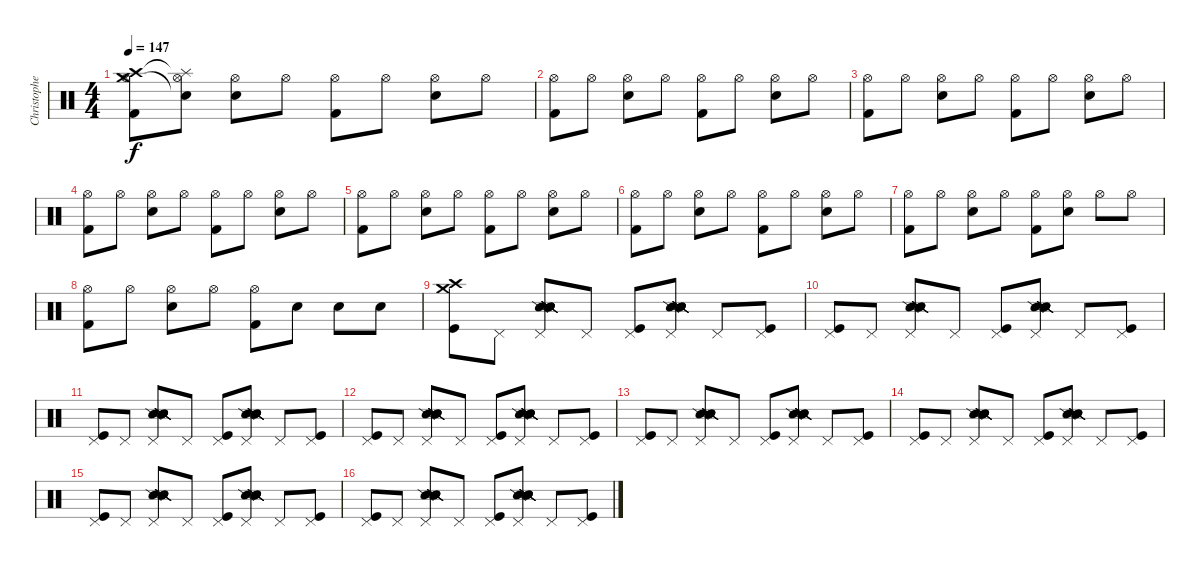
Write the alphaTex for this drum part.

\track ("Christopher Schneider  (Drums)" "Christophe") {instrument percussion}
\staff {score}
\articulation defaults
\ts (4 4)
\tempo 147
\clef neutral
\ks c
("Crash high (hit)" "Hi-Hat (open)" "Crash medium (hit)" "Kick (hit) 2").8{dy f} ("Splash (hit)"{t} "Hi-Hat (open)" "Snare (hit)"{t}).8 ("Hi-Hat (open)" "Electric Snare (hit)").8 "Hi-Hat (open)".8 ("Hi-Hat (open)" "Kick (hit) 2").8 "Hi-Hat (open)".8 ("Hi-Hat (open)" "Electric Snare (hit)").8 "Hi-Hat (open)".8 |
("Hi-Hat (open)" "Kick (hit) 2").8 "Hi-Hat (open)".8 ("Hi-Hat (open)" "Electric Snare (hit)").8 "Hi-Hat (open)".8 ("Hi-Hat (open)" "Kick (hit) 2").8 "Hi-Hat (open)".8 ("Hi-Hat (open)" "Electric Snare (hit)").8 "Hi-Hat (open)".8 |
("Hi-Hat (open)" "Kick (hit) 2").8 "Hi-Hat (open)".8 ("Hi-Hat (open)" "Electric Snare (hit)").8 "Hi-Hat (open)".8 ("Hi-Hat (open)" "Kick (hit) 2").8 "Hi-Hat (open)".8 ("Hi-Hat (open)" "Electric Snare (hit)").8 "Hi-Hat (open)".8 |
("Hi-Hat (open)" "Kick (hit) 2").8 "Hi-Hat (open)".8 ("Hi-Hat (open)" "Electric Snare (hit)").8 "Hi-Hat (open)".8 ("Hi-Hat (open)" "Kick (hit) 2").8 "Hi-Hat (open)".8 ("Hi-Hat (open)" "Electric Snare (hit)").8 "Hi-Hat (open)".8 |
("Hi-Hat (open)" "Kick (hit) 2").8 "Hi-Hat (open)".8 ("Hi-Hat (open)" "Electric Snare (hit)").8 "Hi-Hat (open)".8 ("Hi-Hat (open)" "Kick (hit) 2").8 "Hi-Hat (open)".8 ("Hi-Hat (open)" "Electric Snare (hit)").8 "Hi-Hat (open)".8 |
("Hi-Hat (open)" "Kick (hit) 2").8 "Hi-Hat (open)".8 ("Hi-Hat (open)" "Electric Snare (hit)").8 "Hi-Hat (open)".8 ("Hi-Hat (open)" "Kick (hit) 2").8 "Hi-Hat (open)".8 ("Hi-Hat (open)" "Electric Snare (hit)").8 "Hi-Hat (open)".8 |
("Hi-Hat (open)" "Kick (hit) 2").8 "Hi-Hat (open)".8 ("Hi-Hat (open)" "Electric Snare (hit)").8 "Hi-Hat (open)".8 ("Hi-Hat (open)" "Kick (hit) 2").8 ("Hi-Hat (open)" "Electric Snare (hit)").8 "Hi-Hat (open)".8 "Hi-Hat (open)".8 |
("Hi-Hat (open)" "Kick (hit) 2").8 "Hi-Hat (open)".8 ("Hi-Hat (open)" "Electric Snare (hit)").8 "Hi-Hat (open)".8 ("Hi-Hat (open)" "Kick (hit) 2").8 "Electric Snare (hit)".8 "Electric Snare (hit)".8 "Electric Snare (hit)".8 |
("Crash medium (hit)" "Crash high (hit)" "Kick (hit)").8 "Pedal Hi-Hat (hit)".8 ("Pedal Hi-Hat (hit)" "Snare (side stick) 2" "Snare (side stick) 2" "Snare (side stick) 2" "Snare (side stick) 2" "Snare (side stick) 2").8 "Pedal Hi-Hat (hit)".8 ("Pedal Hi-Hat (hit)" "Kick (hit)").8 ("Pedal Hi-Hat (hit)" "Snare (side stick) 2" "Snare (side stick) 2" "Snare (side stick) 2" "Snare (side stick) 2" "Snare (side stick) 2").8 "Pedal Hi-Hat (hit)".8 ("Pedal Hi-Hat (hit)" "Kick (hit)").8 |
("Pedal Hi-Hat (hit)" "Kick (hit)").8 "Pedal Hi-Hat (hit)".8 ("Pedal Hi-Hat (hit)" "Snare (side stick) 2" "Snare (side stick) 2" "Snare (side stick) 2" "Snare (side stick) 2" "Snare (side stick) 2").8 "Pedal Hi-Hat (hit)".8 ("Pedal Hi-Hat (hit)" "Kick (hit)").8 ("Pedal Hi-Hat (hit)" "Snare (side stick) 2" "Snare (side stick) 2" "Snare (side stick) 2" "Snare (side stick) 2" "Snare (side stick) 2").8 "Pedal Hi-Hat (hit)".8 ("Pedal Hi-Hat (hit)" "Kick (hit)").8 |
("Pedal Hi-Hat (hit)" "Kick (hit)").8 "Pedal Hi-Hat (hit)".8 ("Pedal Hi-Hat (hit)" "Snare (side stick) 2" "Snare (side stick) 2" "Snare (side stick) 2" "Snare (side stick) 2" "Snare (side stick) 2").8 "Pedal Hi-Hat (hit)".8 ("Pedal Hi-Hat (hit)" "Kick (hit)").8 ("Pedal Hi-Hat (hit)" "Snare (side stick) 2" "Snare (side stick) 2" "Snare (side stick) 2" "Snare (side stick) 2" "Snare (side stick) 2").8 "Pedal Hi-Hat (hit)".8 ("Pedal Hi-Hat (hit)" "Kick (hit)").8 |
("Pedal Hi-Hat (hit)" "Kick (hit)").8 "Pedal Hi-Hat (hit)".8 ("Pedal Hi-Hat (hit)" "Snare (side stick) 2" "Snare (side stick) 2" "Snare (side stick) 2" "Snare (side stick) 2" "Snare (side stick) 2").8 "Pedal Hi-Hat (hit)".8 ("Pedal Hi-Hat (hit)" "Kick (hit)").8 ("Pedal Hi-Hat (hit)" "Snare (side stick) 2" "Snare (side stick) 2" "Snare (side stick) 2" "Snare (side stick) 2" "Snare (side stick) 2").8 "Pedal Hi-Hat (hit)".8 ("Pedal Hi-Hat (hit)" "Kick (hit)").8 |
("Pedal Hi-Hat (hit)" "Kick (hit)").8 "Pedal Hi-Hat (hit)".8 ("Pedal Hi-Hat (hit)" "Snare (side stick) 2" "Snare (side stick) 2" "Snare (side stick) 2" "Snare (side stick) 2" "Snare (side stick) 2").8 "Pedal Hi-Hat (hit)".8 ("Pedal Hi-Hat (hit)" "Kick (hit)").8 ("Pedal Hi-Hat (hit)" "Snare (side stick) 2" "Snare (side stick) 2" "Snare (side stick) 2" "Snare (side stick) 2" "Snare (side stick) 2").8 "Pedal Hi-Hat (hit)".8 ("Pedal Hi-Hat (hit)" "Kick (hit)").8 |
("Pedal Hi-Hat (hit)" "Kick (hit)").8 "Pedal Hi-Hat (hit)".8 ("Pedal Hi-Hat (hit)" "Snare (side stick) 2" "Snare (side stick) 2" "Snare (side stick) 2" "Snare (side stick) 2" "Snare (side stick) 2").8 "Pedal Hi-Hat (hit)".8 ("Pedal Hi-Hat (hit)" "Kick (hit)").8 ("Pedal Hi-Hat (hit)" "Snare (side stick) 2" "Snare (side stick) 2" "Snare (side stick) 2" "Snare (side stick) 2" "Snare (side stick) 2").8 "Pedal Hi-Hat (hit)".8 ("Pedal Hi-Hat (hit)" "Kick (hit)").8 |
("Pedal Hi-Hat (hit)" "Kick (hit)").8 "Pedal Hi-Hat (hit)".8 ("Pedal Hi-Hat (hit)" "Snare (side stick) 2" "Snare (side stick) 2" "Snare (side stick) 2" "Snare (side stick) 2" "Snare (side stick) 2").8 "Pedal Hi-Hat (hit)".8 ("Pedal Hi-Hat (hit)" "Kick (hit)").8 ("Pedal Hi-Hat (hit)" "Snare (side stick) 2" "Snare (side stick) 2" "Snare (side stick) 2" "Snare (side stick) 2" "Snare (side stick) 2").8 "Pedal Hi-Hat (hit)".8 ("Pedal Hi-Hat (hit)" "Kick (hit)").8 |
("Pedal Hi-Hat (hit)" "Kick (hit)").8 "Pedal Hi-Hat (hit)".8 ("Pedal Hi-Hat (hit)" "Snare (side stick) 2" "Snare (side stick) 2" "Snare (side stick) 2" "Snare (side stick) 2" "Snare (side stick) 2").8 "Pedal Hi-Hat (hit)".8 ("Pedal Hi-Hat (hit)" "Kick (hit)").8 ("Pedal Hi-Hat (hit)" "Snare (side stick) 2" "Snare (side stick) 2" "Snare (side stick) 2" "Snare (side stick) 2" "Snare (side stick) 2").8 "Pedal Hi-Hat (hit)".8 ("Pedal Hi-Hat (hit)" "Kick (hit)").8
